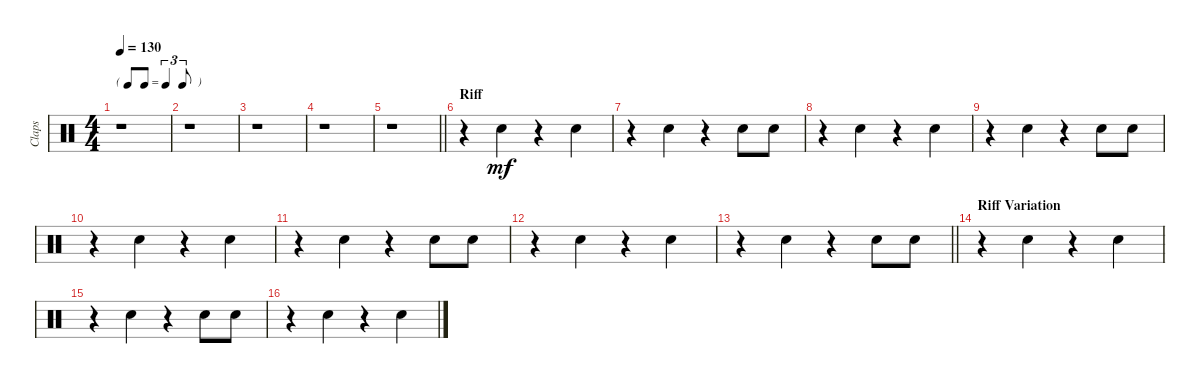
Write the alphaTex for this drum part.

\track ("Claps" "Claps") {instrument percussion}
\staff {score}
\articulation defaults
\ts (4 4)
\tf triplet8th
\tempo 130
\clef neutral
\ks c
r.1{dy mf} |
r.1 |
r.1 |
r.1 |
\barLineRight lightlight
r.1 |
\section ("" "Riff")
r.4 "Hand Clap (hit)".4 r.4 "Hand Clap (hit)".4 |
r.4 "Hand Clap (hit)".4 r.4 "Hand Clap (hit)".8 "Hand Clap (hit)".8 |
r.4 "Hand Clap (hit)".4 r.4 "Hand Clap (hit)".4 |
r.4 "Hand Clap (hit)".4 r.4 "Hand Clap (hit)".8 "Hand Clap (hit)".8 |
r.4 "Hand Clap (hit)".4 r.4 "Hand Clap (hit)".4 |
r.4 "Hand Clap (hit)".4 r.4 "Hand Clap (hit)".8 "Hand Clap (hit)".8 |
r.4 "Hand Clap (hit)".4 r.4 "Hand Clap (hit)".4 |
\barLineRight lightlight
r.4 "Hand Clap (hit)".4 r.4 "Hand Clap (hit)".8 "Hand Clap (hit)".8 |
\section ("" "Riff Variation")
r.4 "Hand Clap (hit)".4 r.4 "Hand Clap (hit)".4 |
r.4 "Hand Clap (hit)".4 r.4 "Hand Clap (hit)".8 "Hand Clap (hit)".8 |
r.4 "Hand Clap (hit)".4 r.4 "Hand Clap (hit)".4
